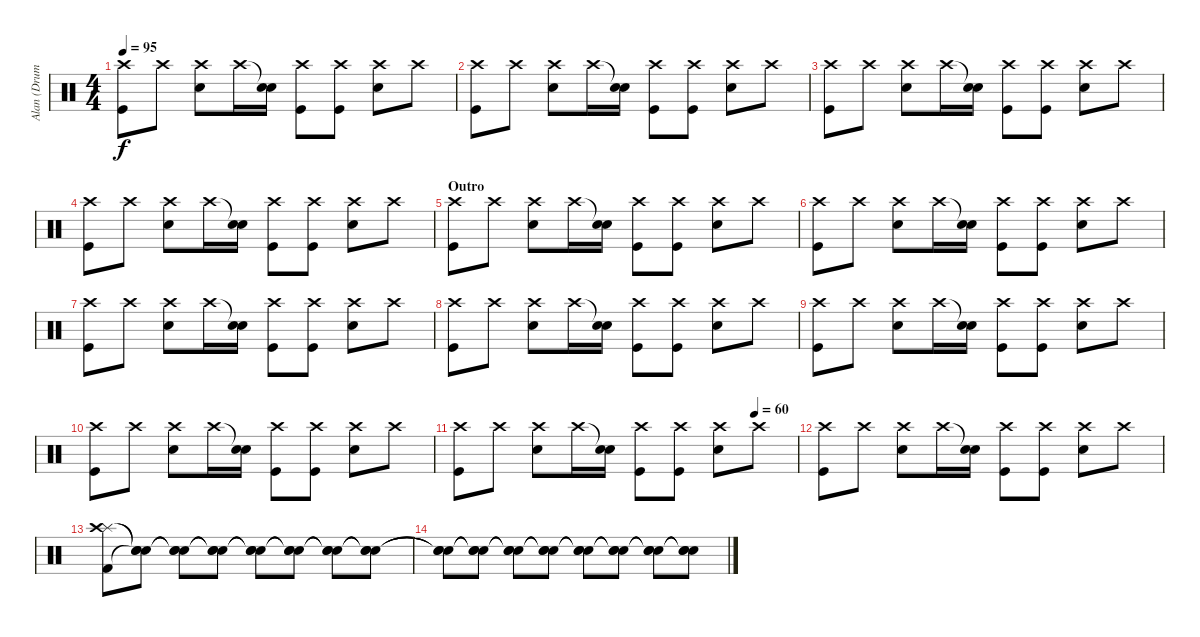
\track ("Alan (Drums)" "Alan (Drum") {instrument percussion}
\staff {score}
\articulation defaults
\ts (4 4)
\tempo 95
\clef neutral
\ks c
("Crash high (hit)" "Kick (hit)").8{dy f} "Crash high (hit)".8 ("Crash high (hit)" "Electric Snare (hit)").8 "Crash high (hit)".16 ("Snare (hit)"{t} "Electric Snare (hit)").16 ("Crash high (hit)" "Kick (hit)").8 ("Crash high (hit)" "Kick (hit)").8 ("Crash high (hit)" "Electric Snare (hit)").8 "Crash high (hit)".8 |
("Crash high (hit)" "Kick (hit)").8 "Crash high (hit)".8 ("Crash high (hit)" "Electric Snare (hit)").8 "Crash high (hit)".16 ("Snare (hit)"{t} "Electric Snare (hit)").16 ("Crash high (hit)" "Kick (hit)").8 ("Crash high (hit)" "Kick (hit)").8 ("Crash high (hit)" "Electric Snare (hit)").8 "Crash high (hit)".8 |
("Crash high (hit)" "Kick (hit)").8 "Crash high (hit)".8 ("Crash high (hit)" "Electric Snare (hit)").8 "Crash high (hit)".16 ("Snare (hit)"{t} "Electric Snare (hit)").16 ("Crash high (hit)" "Kick (hit)").8 ("Crash high (hit)" "Kick (hit)").8 ("Crash high (hit)" "Electric Snare (hit)").8 "Crash high (hit)".8 |
("Crash high (hit)" "Kick (hit)").8 "Crash high (hit)".8 ("Crash high (hit)" "Electric Snare (hit)").8 "Crash high (hit)".16 ("Snare (hit)"{t} "Electric Snare (hit)").16 ("Crash high (hit)" "Kick (hit)").8 ("Crash high (hit)" "Kick (hit)").8 ("Crash high (hit)" "Electric Snare (hit)").8 "Crash high (hit)".8 |
\section ("" "Outro")
("Crash high (hit)" "Kick (hit)").8 "Crash high (hit)".8 ("Crash high (hit)" "Electric Snare (hit)").8 "Crash high (hit)".16 ("Snare (hit)"{t} "Electric Snare (hit)").16 ("Crash high (hit)" "Kick (hit)").8 ("Crash high (hit)" "Kick (hit)").8 ("Crash high (hit)" "Electric Snare (hit)").8 "Crash high (hit)".8 |
("Crash high (hit)" "Kick (hit)").8 "Crash high (hit)".8 ("Crash high (hit)" "Electric Snare (hit)").8 "Crash high (hit)".16 ("Snare (hit)"{t} "Electric Snare (hit)").16 ("Crash high (hit)" "Kick (hit)").8 ("Crash high (hit)" "Kick (hit)").8 ("Crash high (hit)" "Electric Snare (hit)").8 "Crash high (hit)".8 |
("Crash high (hit)" "Kick (hit)").8 "Crash high (hit)".8 ("Crash high (hit)" "Electric Snare (hit)").8 "Crash high (hit)".16 ("Snare (hit)"{t} "Electric Snare (hit)").16 ("Crash high (hit)" "Kick (hit)").8 ("Crash high (hit)" "Kick (hit)").8 ("Crash high (hit)" "Electric Snare (hit)").8 "Crash high (hit)".8 |
("Crash high (hit)" "Kick (hit)").8 "Crash high (hit)".8 ("Crash high (hit)" "Electric Snare (hit)").8 "Crash high (hit)".16 ("Snare (hit)"{t} "Electric Snare (hit)").16 ("Crash high (hit)" "Kick (hit)").8 ("Crash high (hit)" "Kick (hit)").8 ("Crash high (hit)" "Electric Snare (hit)").8 "Crash high (hit)".8 |
("Crash high (hit)" "Kick (hit)").8 "Crash high (hit)".8 ("Crash high (hit)" "Electric Snare (hit)").8 "Crash high (hit)".16 ("Snare (hit)"{t} "Electric Snare (hit)").16 ("Crash high (hit)" "Kick (hit)").8 ("Crash high (hit)" "Kick (hit)").8 ("Crash high (hit)" "Electric Snare (hit)").8 "Crash high (hit)".8 |
("Crash high (hit)" "Kick (hit)").8 "Crash high (hit)".8 ("Crash high (hit)" "Electric Snare (hit)").8 "Crash high (hit)".16 ("Snare (hit)"{t} "Electric Snare (hit)").16 ("Crash high (hit)" "Kick (hit)").8 ("Crash high (hit)" "Kick (hit)").8 ("Crash high (hit)" "Electric Snare (hit)").8 "Crash high (hit)".8 |
\tempo (60 0.875)
("Crash high (hit)" "Kick (hit)").8 "Crash high (hit)".8 ("Crash high (hit)" "Electric Snare (hit)").8 "Crash high (hit)".16 ("Snare (hit)"{t} "Electric Snare (hit)").16 ("Crash high (hit)" "Kick (hit)").8 ("Crash high (hit)" "Kick (hit)").8 ("Crash high (hit)" "Electric Snare (hit)").8 "Crash high (hit)".8 |
("Crash high (hit)" "Kick (hit)").8 "Crash high (hit)".8 ("Crash high (hit)" "Electric Snare (hit)").8 "Crash high (hit)".16 ("Snare (hit)"{t} "Electric Snare (hit)").16 ("Crash high (hit)" "Kick (hit)").8 ("Crash high (hit)" "Kick (hit)").8 ("Crash high (hit)" "Electric Snare (hit)").8 "Crash high (hit)".8 |
("Splash (hit)" "Kick (hit) 2" "Crash high (hit)").8 ("Snare (hit)"{t} "Snare (hit)"{t} "Snare (hit)"{t}).8 ("Snare (hit)"{t} "Snare (hit)"{t} "Snare (hit)"{t}).8 ("Snare (hit)"{t} "Snare (hit)"{t} "Snare (hit)"{t}).8 ("Snare (hit)"{t} "Snare (hit)"{t} "Snare (hit)"{t}).8 ("Snare (hit)"{t} "Snare (hit)"{t} "Snare (hit)"{t}).8 ("Snare (hit)"{t} "Snare (hit)"{t} "Snare (hit)"{t}).8 ("Snare (hit)"{t} "Snare (hit)"{t} "Snare (hit)"{t}).8 |
("Snare (hit)"{t} "Snare (hit)"{t} "Snare (hit)"{t}).8 ("Snare (hit)"{t} "Snare (hit)"{t} "Snare (hit)"{t}).8 ("Snare (hit)"{t} "Snare (hit)"{t} "Snare (hit)"{t}).8 ("Snare (hit)"{t} "Snare (hit)"{t} "Snare (hit)"{t}).8 ("Snare (hit)"{t} "Snare (hit)"{t} "Snare (hit)"{t}).8 ("Snare (hit)"{t} "Snare (hit)"{t} "Snare (hit)"{t}).8 ("Snare (hit)"{t} "Snare (hit)"{t} "Snare (hit)"{t}).8 ("Snare (hit)"{t} "Snare (hit)"{t} "Snare (hit)"{t}).8
